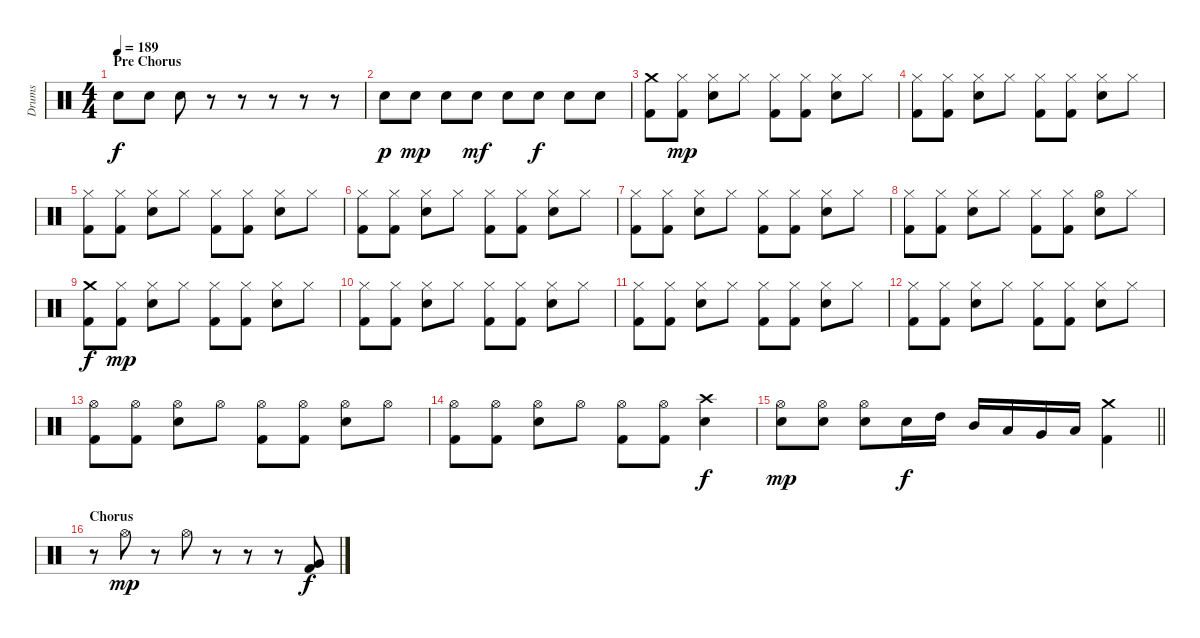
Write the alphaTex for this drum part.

\track ("Drums" "Drums") {instrument percussion}
\staff {score}
\articulation defaults
\ts (4 4)
\section ("" "Pre Chorus")
\tempo 189
\clef neutral
\ks c "Snare (hit) 2".8{dy f} "Snare (hit) 2".8 "Snare (hit) 2".8
r.8 r.8 r.8 r.8 r.8 |
"Snare (hit) 2".8{dy p} "Snare (hit) 2".8{dy mp} "Snare (hit) 2".8 "Snare (hit) 2".8{dy mf} "Snare (hit) 2".8 "Snare (hit) 2".8{dy f} "Snare (hit) 2".8 "Snare (hit) 2".8 |
("Crash medium (hit)" "Kick (hit) 2").8 ("Hi-Hat (closed)" "Kick (hit) 2").8{dy mp} ("Hi-Hat (closed)" "Snare (hit) 2").8 "Hi-Hat (closed)".8 ("Hi-Hat (closed)" "Kick (hit) 2").8 ("Hi-Hat (closed)" "Kick (hit) 2").8 ("Hi-Hat (closed)" "Snare (hit) 2").8 "Hi-Hat (closed)".8 |
("Hi-Hat (closed)" "Kick (hit) 2").8 ("Hi-Hat (closed)" "Kick (hit) 2").8 ("Hi-Hat (closed)" "Snare (hit) 2").8 "Hi-Hat (closed)".8 ("Hi-Hat (closed)" "Kick (hit) 2").8 ("Hi-Hat (closed)" "Kick (hit) 2").8 ("Hi-Hat (closed)" "Snare (hit) 2").8 "Hi-Hat (closed)".8 |
("Hi-Hat (closed)" "Kick (hit) 2").8 ("Hi-Hat (closed)" "Kick (hit) 2").8 ("Hi-Hat (closed)" "Snare (hit) 2").8 "Hi-Hat (closed)".8 ("Hi-Hat (closed)" "Kick (hit) 2").8 ("Hi-Hat (closed)" "Kick (hit) 2").8 ("Hi-Hat (closed)" "Snare (hit) 2").8 "Hi-Hat (closed)".8 |
("Hi-Hat (closed)" "Kick (hit) 2").8 ("Hi-Hat (closed)" "Kick (hit) 2").8 ("Hi-Hat (closed)" "Snare (hit) 2").8 "Hi-Hat (closed)".8 ("Hi-Hat (closed)" "Kick (hit) 2").8 ("Hi-Hat (closed)" "Kick (hit) 2").8 ("Hi-Hat (closed)" "Snare (hit) 2").8 "Hi-Hat (closed)".8 |
("Hi-Hat (closed)" "Kick (hit) 2").8 ("Hi-Hat (closed)" "Kick (hit) 2").8 ("Hi-Hat (closed)" "Snare (hit) 2").8 "Hi-Hat (closed)".8 ("Hi-Hat (closed)" "Kick (hit) 2").8 ("Hi-Hat (closed)" "Kick (hit) 2").8 ("Hi-Hat (closed)" "Snare (hit) 2").8 "Hi-Hat (closed)".8 |
("Hi-Hat (closed)" "Kick (hit) 2").8 ("Hi-Hat (closed)" "Kick (hit) 2").8 ("Hi-Hat (closed)" "Snare (hit) 2").8 "Hi-Hat (closed)".8 ("Hi-Hat (closed)" "Kick (hit) 2").8 ("Hi-Hat (closed)" "Kick (hit) 2").8 ("Hi-Hat (open)" "Snare (hit) 2").8 "Hi-Hat (closed)".8 |
("Crash medium (hit)" "Kick (hit) 2").8{dy f} ("Hi-Hat (closed)" "Kick (hit) 2").8{dy mp} ("Hi-Hat (closed)" "Snare (hit) 2").8 "Hi-Hat (closed)".8 ("Hi-Hat (closed)" "Kick (hit) 2").8 ("Hi-Hat (closed)" "Kick (hit) 2").8 ("Hi-Hat (closed)" "Snare (hit) 2").8 "Hi-Hat (closed)".8 |
("Hi-Hat (closed)" "Kick (hit) 2").8 ("Hi-Hat (closed)" "Kick (hit) 2").8 ("Hi-Hat (closed)" "Snare (hit) 2").8 "Hi-Hat (closed)".8 ("Hi-Hat (closed)" "Kick (hit) 2").8 ("Hi-Hat (closed)" "Kick (hit) 2").8 ("Hi-Hat (closed)" "Snare (hit) 2").8 "Hi-Hat (closed)".8 |
("Hi-Hat (closed)" "Kick (hit) 2").8 ("Hi-Hat (closed)" "Kick (hit) 2").8 ("Hi-Hat (closed)" "Snare (hit) 2").8 "Hi-Hat (closed)".8 ("Hi-Hat (closed)" "Kick (hit) 2").8 ("Hi-Hat (closed)" "Kick (hit) 2").8 ("Hi-Hat (closed)" "Snare (hit) 2").8 "Hi-Hat (closed)".8 |
("Hi-Hat (closed)" "Kick (hit) 2").8 ("Hi-Hat (closed)" "Kick (hit) 2").8 ("Hi-Hat (closed)" "Snare (hit) 2").8 "Hi-Hat (closed)".8 ("Hi-Hat (closed)" "Kick (hit) 2").8 ("Hi-Hat (closed)" "Kick (hit) 2").8 ("Hi-Hat (closed)" "Snare (hit) 2").8 "Hi-Hat (closed)".8 |
("Hi-Hat (open)" "Kick (hit) 2").8 ("Hi-Hat (open)" "Kick (hit) 2").8 ("Hi-Hat (open)" "Snare (hit) 2").8 "Hi-Hat (open)".8 ("Hi-Hat (open)" "Kick (hit) 2").8 ("Hi-Hat (open)" "Kick (hit) 2").8 ("Hi-Hat (open)" "Snare (hit) 2").8 "Hi-Hat (open)".8 |
("Hi-Hat (open)" "Kick (hit) 2").8 ("Hi-Hat (open)" "Kick (hit) 2").8 ("Hi-Hat (open)" "Snare (hit) 2").8 "Hi-Hat (open)".8 ("Hi-Hat (open)" "Kick (hit) 2").8 ("Hi-Hat (open)" "Kick (hit) 2").8 ("Crash high (hit)" "Snare (hit) 2").4{dy f} |
\barLineRight lightlight
("Hi-Hat (open)" "Snare (hit) 2").8{dy mp} ("Hi-Hat (open)" "Snare (hit) 2").8 ("Hi-Hat (open)" "Snare (hit) 2").8 "Snare (hit) 2".16{dy f} "High Tom (hit)".16 "Mid Tom (hit)".16 "Low Tom (hit)".16 "Very Low Tom (hit)".16 "Low Floor Tom (hit)".16 ("Crash medium (hit)" "Kick (hit) 2").4 |
\section ("" "Chorus")
r.8 "Hi-Hat (open)".8{dy mp} r.8 "Hi-Hat (open)".8 r.8 r.8 r.8 ("Very Low Tom (hit)" "Kick (hit) 2").8{dy f}
